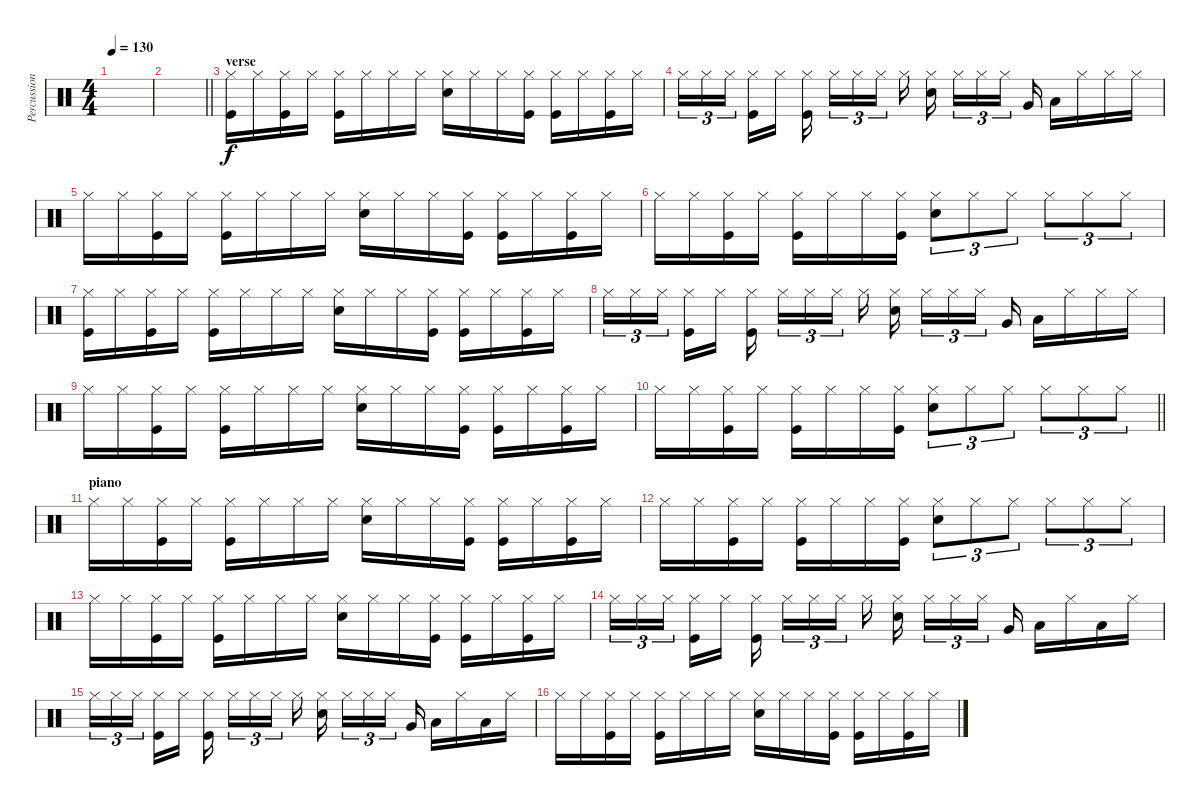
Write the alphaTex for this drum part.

\track ("Percussion" "Percussion") {instrument percussion}
\staff {score}
\articulation defaults
\ts (4 4)
\tempo 130
\clef neutral
\ks c
|
\barLineRight lightlight
|
\section ("" "verse")
("Hi-Hat (closed)" "Kick (hit)").16 "Hi-Hat (closed)".16 ("Hi-Hat (closed)" "Kick (hit)").16 "Hi-Hat (closed)".16 ("Hi-Hat (closed)" "Kick (hit)").16 "Hi-Hat (closed)".16 "Hi-Hat (closed)".16 "Hi-Hat (closed)".16 ("Hi-Hat (closed)" "Hand Clap (hit)").16 "Hi-Hat (closed)".16 "Hi-Hat (closed)".16 ("Hi-Hat (closed)" "Kick (hit)").16 ("Hi-Hat (closed)" "Kick (hit)").16 "Hi-Hat (closed)".16 ("Hi-Hat (closed)" "Kick (hit)").16 "Hi-Hat (closed)".16 |
"Hi-Hat (closed)".16{tu (3 2)} "Hi-Hat (closed)".16{tu (3 2)} "Hi-Hat (closed)".16{tu (3 2) beam splitsecondary} ("Hi-Hat (closed)" "Kick (hit)").16 "Hi-Hat (closed)".16 ("Hi-Hat (closed)" "Kick (hit)").16{beam splitsecondary} "Hi-Hat (closed)".16{tu (3 2)} "Hi-Hat (closed)".16{tu (3 2)} "Hi-Hat (closed)".16{tu (3 2) beam splitsecondary} "Hi-Hat (closed)".16 ("Hi-Hat (closed)" "Hand Clap (hit)").16{beam splitsecondary} "Hi-Hat (closed)".16{tu (3 2)} "Hi-Hat (closed)".16{tu (3 2)} "Hi-Hat (closed)".16{tu (3 2) beam splitsecondary} "Very Low Tom (hit)".16 "Low Floor Tom (hit)".16 "Hi-Hat (closed)".16 "Hi-Hat (closed)".16 "Hi-Hat (closed)".16 |
"Hi-Hat (closed)".16 "Hi-Hat (closed)".16 ("Hi-Hat (closed)" "Kick (hit)").16 "Hi-Hat (closed)".16 ("Hi-Hat (closed)" "Kick (hit)").16 "Hi-Hat (closed)".16 "Hi-Hat (closed)".16 "Hi-Hat (closed)".16 ("Hi-Hat (closed)" "Hand Clap (hit)").16 "Hi-Hat (closed)".16 "Hi-Hat (closed)".16 ("Hi-Hat (closed)" "Kick (hit)").16 ("Hi-Hat (closed)" "Kick (hit)").16 "Hi-Hat (closed)".16 ("Hi-Hat (closed)" "Kick (hit)").16 "Hi-Hat (closed)".16 |
"Hi-Hat (closed)".16 "Hi-Hat (closed)".16 ("Hi-Hat (closed)" "Kick (hit)").16 "Hi-Hat (closed)".16 ("Hi-Hat (closed)" "Kick (hit)").16 "Hi-Hat (closed)".16 "Hi-Hat (closed)".16 ("Hi-Hat (closed)" "Kick (hit)").16 ("Hi-Hat (closed)" "Hand Clap (hit)").8{tu (3 2)} "Hi-Hat (closed)".8{tu (3 2)} "Hi-Hat (closed)".8{tu (3 2)} "Hi-Hat (closed)".8{tu (3 2)} "Hi-Hat (closed)".8{tu (3 2)} "Hi-Hat (closed)".8{tu (3 2)} |
("Hi-Hat (closed)" "Kick (hit)").16 "Hi-Hat (closed)".16 ("Hi-Hat (closed)" "Kick (hit)").16 "Hi-Hat (closed)".16 ("Hi-Hat (closed)" "Kick (hit)").16 "Hi-Hat (closed)".16 "Hi-Hat (closed)".16 "Hi-Hat (closed)".16 ("Hi-Hat (closed)" "Hand Clap (hit)").16 "Hi-Hat (closed)".16 "Hi-Hat (closed)".16 ("Hi-Hat (closed)" "Kick (hit)").16 ("Hi-Hat (closed)" "Kick (hit)").16 "Hi-Hat (closed)".16 ("Hi-Hat (closed)" "Kick (hit)").16 "Hi-Hat (closed)".16 |
"Hi-Hat (closed)".16{tu (3 2)} "Hi-Hat (closed)".16{tu (3 2)} "Hi-Hat (closed)".16{tu (3 2) beam splitsecondary} ("Hi-Hat (closed)" "Kick (hit)").16 "Hi-Hat (closed)".16 ("Hi-Hat (closed)" "Kick (hit)").16{beam splitsecondary} "Hi-Hat (closed)".16{tu (3 2)} "Hi-Hat (closed)".16{tu (3 2)} "Hi-Hat (closed)".16{tu (3 2) beam splitsecondary} "Hi-Hat (closed)".16 ("Hi-Hat (closed)" "Hand Clap (hit)").16{beam splitsecondary} "Hi-Hat (closed)".16{tu (3 2)} "Hi-Hat (closed)".16{tu (3 2)} "Hi-Hat (closed)".16{tu (3 2) beam splitsecondary} "Very Low Tom (hit)".16 "Low Floor Tom (hit)".16 "Hi-Hat (closed)".16 "Hi-Hat (closed)".16 "Hi-Hat (closed)".16 |
"Hi-Hat (closed)".16 "Hi-Hat (closed)".16 ("Hi-Hat (closed)" "Kick (hit)").16 "Hi-Hat (closed)".16 ("Hi-Hat (closed)" "Kick (hit)").16 "Hi-Hat (closed)".16 "Hi-Hat (closed)".16 "Hi-Hat (closed)".16 ("Hi-Hat (closed)" "Hand Clap (hit)").16 "Hi-Hat (closed)".16 "Hi-Hat (closed)".16 ("Hi-Hat (closed)" "Kick (hit)").16 ("Hi-Hat (closed)" "Kick (hit)").16 "Hi-Hat (closed)".16 ("Hi-Hat (closed)" "Kick (hit)").16 "Hi-Hat (closed)".16 |
\barLineRight lightlight "Hi-Hat (closed)".16 "Hi-Hat (closed)".16
("Hi-Hat (closed)" "Kick (hit)").16 "Hi-Hat (closed)".16 ("Hi-Hat (closed)" "Kick (hit)").16 "Hi-Hat (closed)".16 "Hi-Hat (closed)".16 ("Hi-Hat (closed)" "Kick (hit)").16 ("Hi-Hat (closed)" "Hand Clap (hit)").8{tu (3 2)} "Hi-Hat (closed)".8{tu (3 2)} "Hi-Hat (closed)".8{tu (3 2)} "Hi-Hat (closed)".8{tu (3 2)} "Hi-Hat (closed)".8{tu (3 2)} "Hi-Hat (closed)".8{tu (3 2)} |
\section ("" "piano")
"Hi-Hat (closed)".16 "Hi-Hat (closed)".16 ("Hi-Hat (closed)" "Kick (hit)").16 "Hi-Hat (closed)".16 ("Hi-Hat (closed)" "Kick (hit)").16 "Hi-Hat (closed)".16 "Hi-Hat (closed)".16 "Hi-Hat (closed)".16 ("Hi-Hat (closed)" "Hand Clap (hit)").16 "Hi-Hat (closed)".16 "Hi-Hat (closed)".16 ("Hi-Hat (closed)" "Kick (hit)").16 ("Hi-Hat (closed)" "Kick (hit)").16 "Hi-Hat (closed)".16 ("Hi-Hat (closed)" "Kick (hit)").16 "Hi-Hat (closed)".16 |
"Hi-Hat (closed)".16 "Hi-Hat (closed)".16 ("Hi-Hat (closed)" "Kick (hit)").16 "Hi-Hat (closed)".16 ("Hi-Hat (closed)" "Kick (hit)").16 "Hi-Hat (closed)".16 "Hi-Hat (closed)".16 ("Hi-Hat (closed)" "Kick (hit)").16 ("Hi-Hat (closed)" "Hand Clap (hit)").8{tu (3 2)} "Hi-Hat (closed)".8{tu (3 2)} "Hi-Hat (closed)".8{tu (3 2)} "Hi-Hat (closed)".8{tu (3 2)} "Hi-Hat (closed)".8{tu (3 2)} "Hi-Hat (closed)".8{tu (3 2)} |
"Hi-Hat (closed)".16 "Hi-Hat (closed)".16 ("Hi-Hat (closed)" "Kick (hit)").16 "Hi-Hat (closed)".16 ("Hi-Hat (closed)" "Kick (hit)").16 "Hi-Hat (closed)".16 "Hi-Hat (closed)".16 "Hi-Hat (closed)".16 ("Hi-Hat (closed)" "Hand Clap (hit)").16 "Hi-Hat (closed)".16 "Hi-Hat (closed)".16 ("Hi-Hat (closed)" "Kick (hit)").16 ("Hi-Hat (closed)" "Kick (hit)").16 "Hi-Hat (closed)".16 ("Hi-Hat (closed)" "Kick (hit)").16 "Hi-Hat (closed)".16 |
"Hi-Hat (closed)".16{tu (3 2)} "Hi-Hat (closed)".16{tu (3 2)} "Hi-Hat (closed)".16{tu (3 2) beam splitsecondary} ("Hi-Hat (closed)" "Kick (hit)").16 "Hi-Hat (closed)".16 ("Hi-Hat (closed)" "Kick (hit)").16{beam splitsecondary} "Hi-Hat (closed)".16{tu (3 2)} "Hi-Hat (closed)".16{tu (3 2)} "Hi-Hat (closed)".16{tu (3 2) beam splitsecondary} "Hi-Hat (closed)".16 ("Hi-Hat (closed)" "Hand Clap (hit)").16{beam splitsecondary} "Hi-Hat (closed)".16{tu (3 2)} "Hi-Hat (closed)".16{tu (3 2)} "Hi-Hat (closed)".16{tu (3 2) beam splitsecondary} "Very Low Tom (hit)".16 "Low Floor Tom (hit)".16 "Hi-Hat (closed)".16 "Low Floor Tom (hit)".16 "Hi-Hat (closed)".16 |
"Hi-Hat (closed)".16{tu (3 2)} "Hi-Hat (closed)".16{tu (3 2)} "Hi-Hat (closed)".16{tu (3 2) beam splitsecondary} ("Hi-Hat (closed)" "Kick (hit)").16 "Hi-Hat (closed)".16 ("Hi-Hat (closed)" "Kick (hit)").16{beam splitsecondary} "Hi-Hat (closed)".16{tu (3 2)} "Hi-Hat (closed)".16{tu (3 2)} "Hi-Hat (closed)".16{tu (3 2) beam splitsecondary} "Hi-Hat (closed)".16 ("Hi-Hat (closed)" "Hand Clap (hit)").16{beam splitsecondary} "Hi-Hat (closed)".16{tu (3 2)} "Hi-Hat (closed)".16{tu (3 2)} "Hi-Hat (closed)".16{tu (3 2) beam splitsecondary} "Very Low Tom (hit)".16 "Low Floor Tom (hit)".16 "Hi-Hat (closed)".16 "Low Floor Tom (hit)".16 "Hi-Hat (closed)".16 |
"Hi-Hat (closed)".16 "Hi-Hat (closed)".16 ("Hi-Hat (closed)" "Kick (hit)").16 "Hi-Hat (closed)".16 ("Hi-Hat (closed)" "Kick (hit)").16 "Hi-Hat (closed)".16 "Hi-Hat (closed)".16 "Hi-Hat (closed)".16 ("Hi-Hat (closed)" "Hand Clap (hit)").16 "Hi-Hat (closed)".16 "Hi-Hat (closed)".16 ("Hi-Hat (closed)" "Kick (hit)").16 ("Hi-Hat (closed)" "Kick (hit)").16 "Hi-Hat (closed)".16 ("Hi-Hat (closed)" "Kick (hit)").16 "Hi-Hat (closed)".16
